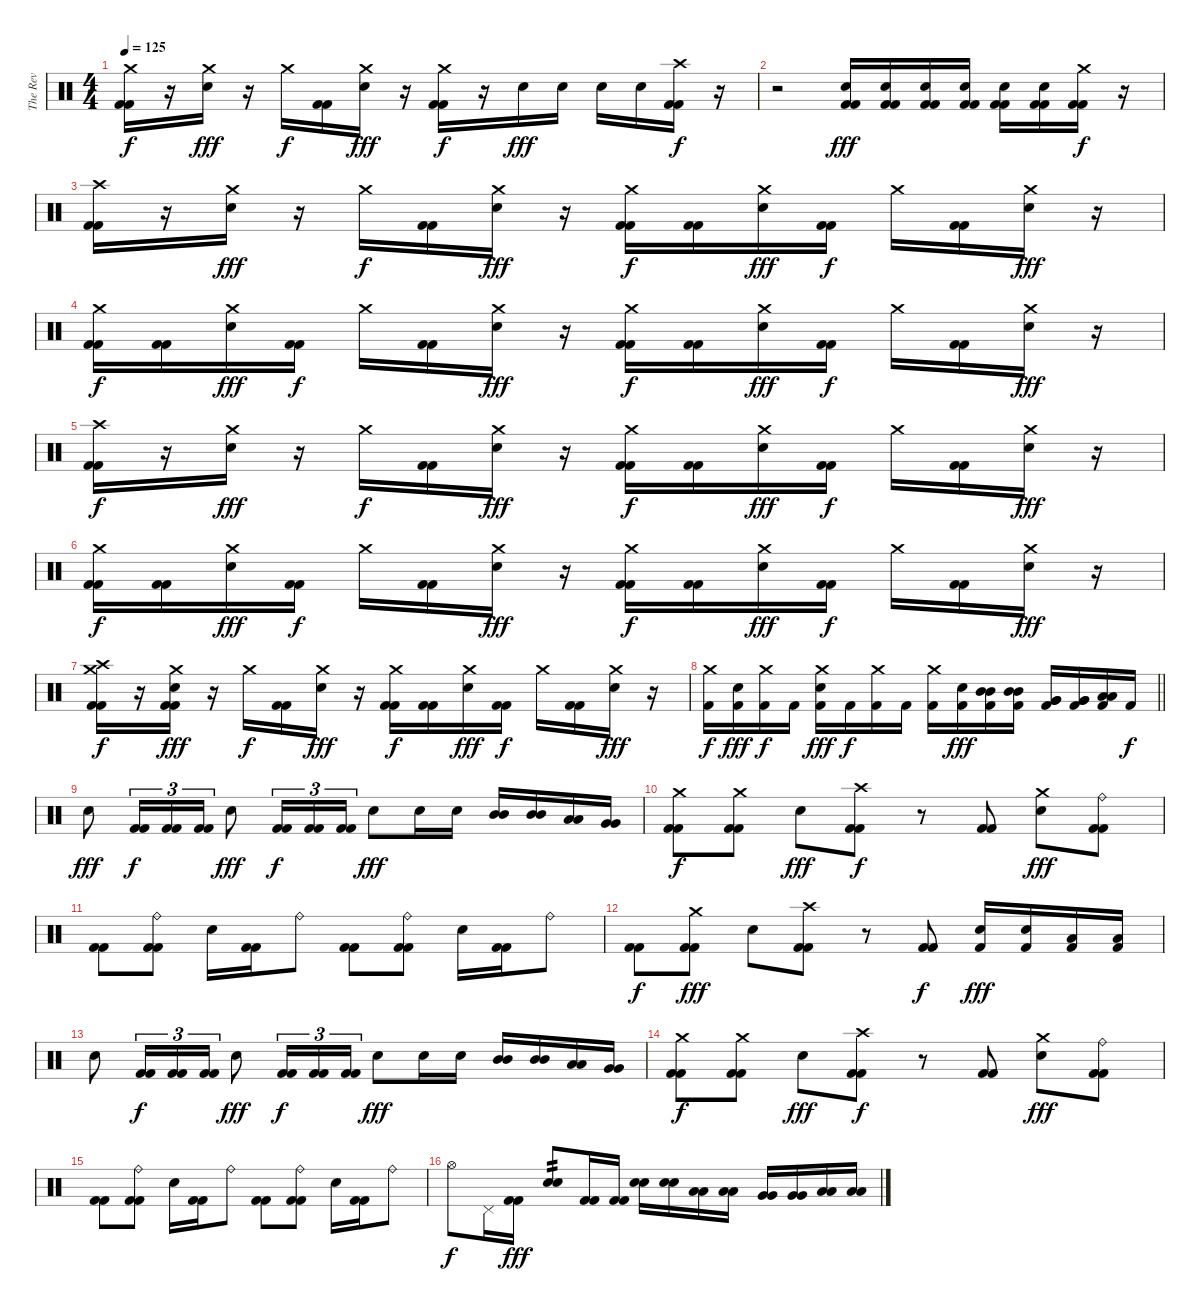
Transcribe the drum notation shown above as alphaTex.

\track ("The Rev" "The Rev") {instrument percussion}
\staff {score}
\articulation defaults
\ts (4 4)
\tempo 125
\clef neutral
\ks c
("Crash medium (hit)" "Kick (hit) 2" "Kick (hit) 2").16{dy f} r.16 ("Crash medium (hit)" "Electric Snare (hit)").16{dy fff} r.16 "Crash medium (hit)".16{dy f} ("Kick (hit) 2" "Kick (hit) 2").16 ("Crash medium (hit)" "Electric Snare (hit)").16{dy fff} r.16 ("Crash medium (hit)" "Kick (hit) 2" "Kick (hit) 2").16{dy f} r.16 "Electric Snare (hit)".16{dy fff} "Electric Snare (hit)".16 "Electric Snare (hit)".16 "Electric Snare (hit)".16 ("Crash high (hit)" "Kick (hit) 2" "Kick (hit) 2").16{dy f} r.16 |
r.2 ("Electric Snare (hit)" "Kick (hit) 2" "Kick (hit) 2").16{dy fff} ("Electric Snare (hit)" "Kick (hit) 2" "Kick (hit) 2").16 ("Electric Snare (hit)" "Kick (hit) 2" "Kick (hit) 2").16 ("Electric Snare (hit)" "Kick (hit) 2" "Kick (hit) 2").16 ("Electric Snare (hit)" "Kick (hit) 2" "Kick (hit) 2").16 ("Electric Snare (hit)" "Kick (hit) 2" "Kick (hit) 2").16 ("Crash medium (hit)" "Kick (hit) 2" "Kick (hit) 2").16{dy f} r.16 |
("Crash high (hit)" "Kick (hit) 2" "Kick (hit) 2").16 r.16 ("Crash medium (hit)" "Electric Snare (hit)").16{dy fff} r.16 "Crash medium (hit)".16{dy f} ("Kick (hit) 2" "Kick (hit) 2").16 ("Crash medium (hit)" "Electric Snare (hit)").16{dy fff} r.16 ("Crash medium (hit)" "Kick (hit) 2" "Kick (hit) 2").16{dy f} ("Kick (hit) 2" "Kick (hit) 2").16 ("Crash medium (hit)" "Electric Snare (hit)").16{dy fff} ("Kick (hit) 2" "Kick (hit) 2").16{dy f} "Crash medium (hit)".16 ("Kick (hit) 2" "Kick (hit) 2").16 ("Crash medium (hit)" "Electric Snare (hit)").16{dy fff} r.16 |
("Crash medium (hit)" "Kick (hit) 2" "Kick (hit) 2").16{dy f} ("Kick (hit) 2" "Kick (hit) 2").16 ("Crash medium (hit)" "Electric Snare (hit)").16{dy fff} ("Kick (hit) 2" "Kick (hit) 2").16{dy f} "Crash medium (hit)".16 ("Kick (hit) 2" "Kick (hit) 2").16 ("Crash medium (hit)" "Electric Snare (hit)").16{dy fff} r.16 ("Crash medium (hit)" "Kick (hit) 2" "Kick (hit) 2").16{dy f} ("Kick (hit) 2" "Kick (hit) 2").16 ("Crash medium (hit)" "Electric Snare (hit)").16{dy fff} ("Kick (hit) 2" "Kick (hit) 2").16{dy f} "Crash medium (hit)".16 ("Kick (hit) 2" "Kick (hit) 2").16 ("Crash medium (hit)" "Electric Snare (hit)").16{dy fff} r.16 |
("Crash high (hit)" "Kick (hit) 2" "Kick (hit) 2").16{dy f} r.16 ("Crash medium (hit)" "Electric Snare (hit)").16{dy fff} r.16 "Crash medium (hit)".16{dy f} ("Kick (hit) 2" "Kick (hit) 2").16 ("Crash medium (hit)" "Electric Snare (hit)").16{dy fff} r.16 ("Crash medium (hit)" "Kick (hit) 2" "Kick (hit) 2").16{dy f} ("Kick (hit) 2" "Kick (hit) 2").16 ("Crash medium (hit)" "Electric Snare (hit)").16{dy fff} ("Kick (hit) 2" "Kick (hit) 2").16{dy f} "Crash medium (hit)".16 ("Kick (hit) 2" "Kick (hit) 2").16 ("Crash medium (hit)" "Electric Snare (hit)").16{dy fff} r.16 |
("Crash medium (hit)" "Kick (hit) 2" "Kick (hit) 2").16{dy f} ("Kick (hit) 2" "Kick (hit) 2").16 ("Crash medium (hit)" "Electric Snare (hit)").16{dy fff} ("Kick (hit) 2" "Kick (hit) 2").16{dy f} "Crash medium (hit)".16 ("Kick (hit) 2" "Kick (hit) 2").16 ("Crash medium (hit)" "Electric Snare (hit)").16{dy fff} r.16 ("Crash medium (hit)" "Kick (hit) 2" "Kick (hit) 2").16{dy f} ("Kick (hit) 2" "Kick (hit) 2").16 ("Crash medium (hit)" "Electric Snare (hit)").16{dy fff} ("Kick (hit) 2" "Kick (hit) 2").16{dy f} "Crash medium (hit)".16 ("Kick (hit) 2" "Kick (hit) 2").16 ("Crash medium (hit)" "Electric Snare (hit)").16{dy fff} r.16 |
("Crash high (hit)" "Crash medium (hit)" "Kick (hit) 2" "Kick (hit) 2").16{dy f} r.16 ("Crash medium (hit)" "Electric Snare (hit)" "Kick (hit) 2" "Kick (hit) 2").16{dy fff} r.16 "Crash medium (hit)".16{dy f} ("Kick (hit) 2" "Kick (hit) 2").16 ("Crash medium (hit)" "Electric Snare (hit)").16{dy fff} r.16 ("Crash medium (hit)" "Kick (hit) 2" "Kick (hit) 2").16{dy f} ("Kick (hit) 2" "Kick (hit) 2").16 ("Crash medium (hit)" "Electric Snare (hit)").16{dy fff} ("Kick (hit) 2" "Kick (hit) 2").16{dy f} "Crash medium (hit)".16 ("Kick (hit) 2" "Kick (hit) 2").16 ("Crash medium (hit)" "Electric Snare (hit)").16{dy fff} r.16 |
\barLineRight lightlight
("Crash medium (hit)" "Kick (hit) 2").16{dy f} ("Electric Snare (hit)" "Kick (hit) 2").16{dy fff} ("Crash medium (hit)" "Kick (hit) 2").16{dy f} "Kick (hit) 2".16 ("Crash medium (hit)" "Electric Snare (hit)" "Kick (hit) 2").16{dy fff} "Kick (hit) 2".16{dy f} ("Crash medium (hit)" "Kick (hit) 2").16 "Kick (hit) 2".16 ("Crash medium (hit)" "Kick (hit) 2").16 ("Electric Snare (hit)" "Kick (hit) 2").16{dy fff} ("Mid Tom (hit)" "Mid Tom (hit)" "Kick (hit) 2").16 ("Mid Tom (hit)" "Mid Tom (hit)" "Kick (hit) 2").16 ("Very Low Tom (hit)" "Very Low Tom (hit)" "Kick (hit) 2").16 ("Very Low Tom (hit)" "Very Low Tom (hit)" "Kick (hit) 2").16 ("Low Floor Tom (hit)" "Low Floor Tom (hit)" "Kick (hit) 2").16 "Kick (hit) 2".16{dy f} |
"Electric Snare (hit)".8{dy fff} ("Kick (hit) 2" "Kick (hit) 2").16{tu (3 2) dy f} ("Kick (hit) 2" "Kick (hit) 2").16{tu (3 2)} ("Kick (hit) 2" "Kick (hit) 2").16{tu (3 2)} "Electric Snare (hit)".8{dy fff} ("Kick (hit) 2" "Kick (hit) 2").16{tu (3 2) dy f} ("Kick (hit) 2" "Kick (hit) 2").16{tu (3 2)} ("Kick (hit) 2" "Kick (hit) 2").16{tu (3 2)} "Electric Snare (hit)".8{dy fff} "Electric Snare (hit)".16 "Electric Snare (hit)".16 ("Mid Tom (hit)" "Mid Tom (hit)").16 ("Mid Tom (hit)" "Mid Tom (hit)").16 ("Low Tom (hit)" "Low Tom (hit)").16 ("Very Low Tom (hit)" "Very Low Tom (hit)").16 |
("Crash medium (hit)" "Kick (hit) 2" "Kick (hit) 2").8{dy f} ("Crash medium (hit)" "Kick (hit) 2" "Kick (hit) 2").8 "Electric Snare (hit)".8{dy fff} ("Crash high (hit)" "Kick (hit) 2" "Kick (hit) 2").8{dy f} r.8 ("Kick (hit) 2" "Kick (hit) 2").8 ("Crash medium (hit)" "Electric Snare (hit)").8{dy fff} ("Ride (bell)" "Kick (hit) 2" "Kick (hit) 2").8 |
("Kick (hit) 2" "Kick (hit) 2").8 ("Ride (bell)" "Kick (hit) 2" "Kick (hit) 2").8 "Electric Snare (hit)".16 ("Kick (hit) 2" "Kick (hit) 2").16 "Ride (bell)".8 ("Kick (hit) 2" "Kick (hit) 2").8 ("Ride (bell)" "Kick (hit) 2" "Kick (hit) 2").8 "Electric Snare (hit)".16 ("Kick (hit) 2" "Kick (hit) 2").16 "Ride (bell)".8 |
("Kick (hit) 2" "Kick (hit) 2").8{dy f} ("Crash medium (hit)" "Kick (hit) 2" "Kick (hit) 2").8{dy fff} "Electric Snare (hit)".8 ("Crash high (hit)" "Kick (hit) 2" "Kick (hit) 2").8 r.8 ("Kick (hit) 2" "Kick (hit) 2").8{dy f} ("Electric Snare (hit)" "Kick (hit) 2").16{dy fff} ("Electric Snare (hit)" "Kick (hit) 2").16 ("Low Tom (hit)" "Kick (hit) 2").16 ("Low Tom (hit)" "Kick (hit) 2").16 |
"Electric Snare (hit)".8 ("Kick (hit) 2" "Kick (hit) 2").16{tu (3 2) dy f} ("Kick (hit) 2" "Kick (hit) 2").16{tu (3 2)} ("Kick (hit) 2" "Kick (hit) 2").16{tu (3 2)} "Electric Snare (hit)".8{dy fff} ("Kick (hit) 2" "Kick (hit) 2").16{tu (3 2) dy f} ("Kick (hit) 2" "Kick (hit) 2").16{tu (3 2)} ("Kick (hit) 2" "Kick (hit) 2").16{tu (3 2)} "Electric Snare (hit)".8{dy fff} "Electric Snare (hit)".16 "Electric Snare (hit)".16 ("Mid Tom (hit)" "Mid Tom (hit)").16 ("Mid Tom (hit)" "Mid Tom (hit)").16 ("Low Tom (hit)" "Low Tom (hit)").16 ("Very Low Tom (hit)" "Very Low Tom (hit)").16 |
("Crash medium (hit)" "Kick (hit) 2" "Kick (hit) 2").8{dy f} ("Crash medium (hit)" "Kick (hit) 2" "Kick (hit) 2").8 "Electric Snare (hit)".8{dy fff} ("Crash high (hit)" "Kick (hit) 2" "Kick (hit) 2").8{dy f} r.8 ("Kick (hit) 2" "Kick (hit) 2").8 ("Crash medium (hit)" "Electric Snare (hit)").8{dy fff} ("Ride (bell)" "Kick (hit) 2" "Kick (hit) 2").8 |
("Kick (hit) 2" "Kick (hit) 2").8 ("Ride (bell)" "Kick (hit) 2" "Kick (hit) 2").8 "Electric Snare (hit)".16 ("Kick (hit) 2" "Kick (hit) 2").16 "Ride (bell)".8 ("Kick (hit) 2" "Kick (hit) 2").8 ("Ride (bell)" "Kick (hit) 2" "Kick (hit) 2").8 "Electric Snare (hit)".16 ("Kick (hit) 2" "Kick (hit) 2").16 "Ride (bell)".8 |
"Hi-Hat (open)".8{dy f} "Pedal Hi-Hat (hit)".16 ("Kick (hit) 2" "Kick (hit) 2").16{dy fff} ("Electric Snare (hit)" "Electric Snare (hit)").8{tp 2} ("Kick (hit) 2" "Kick (hit) 2").16 ("Kick (hit) 2" "Kick (hit) 2").16 ("Electric Snare (hit)" "Electric Snare (hit)").16 ("Electric Snare (hit)" "Electric Snare (hit)").16 ("Low Tom (hit)" "Low Tom (hit)").16 ("Low Tom (hit)" "Low Tom (hit)").16 ("Very Low Tom (hit)" "Very Low Tom (hit)").16 ("Very Low Tom (hit)" "Very Low Tom (hit)").16 ("Low Floor Tom (hit)" "Low Floor Tom (hit)").16 ("Low Floor Tom (hit)" "Low Floor Tom (hit)").16
